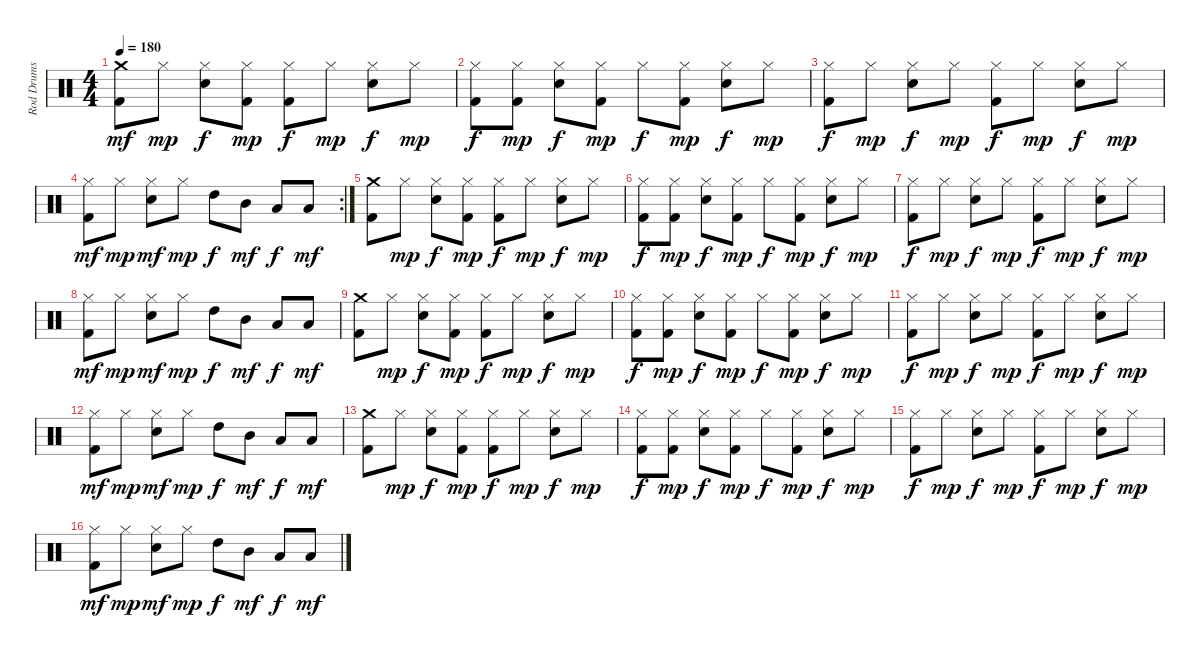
\track ("Rod Drums" "Rod Drums") {instrument percussion}
\staff {score}
\articulation defaults
\ts (4 4)
\tempo 180
\clef neutral
\ks c
("Crash medium (hit)" "Kick (hit) 2").8{dy mf} "Hi-Hat (closed)".8{dy mp} ("Hi-Hat (closed)" "Snare (hit) 2").8{dy f} ("Hi-Hat (closed)" "Kick (hit) 2").8{dy mp} ("Hi-Hat (closed)" "Kick (hit) 2").8{dy f} "Hi-Hat (closed)".8{dy mp} ("Hi-Hat (closed)" "Snare (hit) 2").8{dy f} "Hi-Hat (closed)".8{dy mp} |
("Hi-Hat (closed)" "Kick (hit) 2").8{dy f} ("Hi-Hat (closed)" "Kick (hit) 2").8{dy mp} ("Hi-Hat (closed)" "Snare (hit) 2").8{dy f} ("Hi-Hat (closed)" "Kick (hit) 2").8{dy mp} "Hi-Hat (closed)".8{dy f} ("Hi-Hat (closed)" "Kick (hit) 2").8{dy mp} ("Hi-Hat (closed)" "Snare (hit) 2").8{dy f} "Hi-Hat (closed)".8{dy mp} |
("Hi-Hat (closed)" "Kick (hit) 2").8{dy f} "Hi-Hat (closed)".8{dy mp} ("Hi-Hat (closed)" "Snare (hit) 2").8{dy f} "Hi-Hat (closed)".8{dy mp} ("Hi-Hat (closed)" "Kick (hit) 2").8{dy f} "Hi-Hat (closed)".8{dy mp} ("Hi-Hat (closed)" "Snare (hit) 2").8{dy f} "Hi-Hat (closed)".8{dy mp} |
\rc 2
("Hi-Hat (closed)" "Kick (hit) 2").8{dy mf} "Hi-Hat (closed)".8{dy mp} ("Hi-Hat (closed)" "Snare (hit) 2").8{dy mf} "Hi-Hat (closed)".8{dy mp} "High Tom (hit)".8{dy f} "Mid Tom (hit)".8{dy mf} "Low Tom (hit)".8{dy f} "Low Tom (hit)".8{dy mf} |
("Crash medium (hit)" "Kick (hit) 2").8 "Hi-Hat (closed)".8{dy mp} ("Hi-Hat (closed)" "Snare (hit) 2").8{dy f} ("Hi-Hat (closed)" "Kick (hit) 2").8{dy mp} ("Hi-Hat (closed)" "Kick (hit) 2").8{dy f} "Hi-Hat (closed)".8{dy mp} ("Hi-Hat (closed)" "Snare (hit) 2").8{dy f} "Hi-Hat (closed)".8{dy mp} |
("Hi-Hat (closed)" "Kick (hit) 2").8{dy f} ("Hi-Hat (closed)" "Kick (hit) 2").8{dy mp} ("Hi-Hat (closed)" "Snare (hit) 2").8{dy f} ("Hi-Hat (closed)" "Kick (hit) 2").8{dy mp} "Hi-Hat (closed)".8{dy f} ("Hi-Hat (closed)" "Kick (hit) 2").8{dy mp} ("Hi-Hat (closed)" "Snare (hit) 2").8{dy f} "Hi-Hat (closed)".8{dy mp} |
("Hi-Hat (closed)" "Kick (hit) 2").8{dy f} "Hi-Hat (closed)".8{dy mp} ("Hi-Hat (closed)" "Snare (hit) 2").8{dy f} "Hi-Hat (closed)".8{dy mp} ("Hi-Hat (closed)" "Kick (hit) 2").8{dy f} "Hi-Hat (closed)".8{dy mp} ("Hi-Hat (closed)" "Snare (hit) 2").8{dy f} "Hi-Hat (closed)".8{dy mp} |
("Hi-Hat (closed)" "Kick (hit) 2").8{dy mf} "Hi-Hat (closed)".8{dy mp} ("Hi-Hat (closed)" "Snare (hit) 2").8{dy mf} "Hi-Hat (closed)".8{dy mp} "High Tom (hit)".8{dy f} "Mid Tom (hit)".8{dy mf} "Low Tom (hit)".8{dy f} "Low Tom (hit)".8{dy mf} |
("Crash medium (hit)" "Kick (hit) 2").8 "Hi-Hat (closed)".8{dy mp} ("Hi-Hat (closed)" "Snare (hit) 2").8{dy f} ("Hi-Hat (closed)" "Kick (hit) 2").8{dy mp} ("Hi-Hat (closed)" "Kick (hit) 2").8{dy f} "Hi-Hat (closed)".8{dy mp} ("Hi-Hat (closed)" "Snare (hit) 2").8{dy f} "Hi-Hat (closed)".8{dy mp} |
("Hi-Hat (closed)" "Kick (hit) 2").8{dy f} ("Hi-Hat (closed)" "Kick (hit) 2").8{dy mp} ("Hi-Hat (closed)" "Snare (hit) 2").8{dy f} ("Hi-Hat (closed)" "Kick (hit) 2").8{dy mp} "Hi-Hat (closed)".8{dy f} ("Hi-Hat (closed)" "Kick (hit) 2").8{dy mp} ("Hi-Hat (closed)" "Snare (hit) 2").8{dy f} "Hi-Hat (closed)".8{dy mp} |
("Hi-Hat (closed)" "Kick (hit) 2").8{dy f} "Hi-Hat (closed)".8{dy mp} ("Hi-Hat (closed)" "Snare (hit) 2").8{dy f} "Hi-Hat (closed)".8{dy mp} ("Hi-Hat (closed)" "Kick (hit) 2").8{dy f} "Hi-Hat (closed)".8{dy mp} ("Hi-Hat (closed)" "Snare (hit) 2").8{dy f} "Hi-Hat (closed)".8{dy mp} |
("Hi-Hat (closed)" "Kick (hit) 2").8{dy mf} "Hi-Hat (closed)".8{dy mp} ("Hi-Hat (closed)" "Snare (hit) 2").8{dy mf} "Hi-Hat (closed)".8{dy mp} "High Tom (hit)".8{dy f} "Mid Tom (hit)".8{dy mf} "Low Tom (hit)".8{dy f} "Low Tom (hit)".8{dy mf} |
("Crash medium (hit)" "Kick (hit) 2").8 "Hi-Hat (closed)".8{dy mp} ("Hi-Hat (closed)" "Snare (hit) 2").8{dy f} ("Hi-Hat (closed)" "Kick (hit) 2").8{dy mp} ("Hi-Hat (closed)" "Kick (hit) 2").8{dy f} "Hi-Hat (closed)".8{dy mp} ("Hi-Hat (closed)" "Snare (hit) 2").8{dy f} "Hi-Hat (closed)".8{dy mp} |
("Hi-Hat (closed)" "Kick (hit) 2").8{dy f} ("Hi-Hat (closed)" "Kick (hit) 2").8{dy mp} ("Hi-Hat (closed)" "Snare (hit) 2").8{dy f} ("Hi-Hat (closed)" "Kick (hit) 2").8{dy mp} "Hi-Hat (closed)".8{dy f} ("Hi-Hat (closed)" "Kick (hit) 2").8{dy mp} ("Hi-Hat (closed)" "Snare (hit) 2").8{dy f} "Hi-Hat (closed)".8{dy mp} |
("Hi-Hat (closed)" "Kick (hit) 2").8{dy f} "Hi-Hat (closed)".8{dy mp} ("Hi-Hat (closed)" "Snare (hit) 2").8{dy f} "Hi-Hat (closed)".8{dy mp} ("Hi-Hat (closed)" "Kick (hit) 2").8{dy f} "Hi-Hat (closed)".8{dy mp} ("Hi-Hat (closed)" "Snare (hit) 2").8{dy f} "Hi-Hat (closed)".8{dy mp} |
("Hi-Hat (closed)" "Kick (hit) 2").8{dy mf} "Hi-Hat (closed)".8{dy mp} ("Hi-Hat (closed)" "Snare (hit) 2").8{dy mf} "Hi-Hat (closed)".8{dy mp} "High Tom (hit)".8{dy f} "Mid Tom (hit)".8{dy mf} "Low Tom (hit)".8{dy f} "Low Tom (hit)".8{dy mf}
